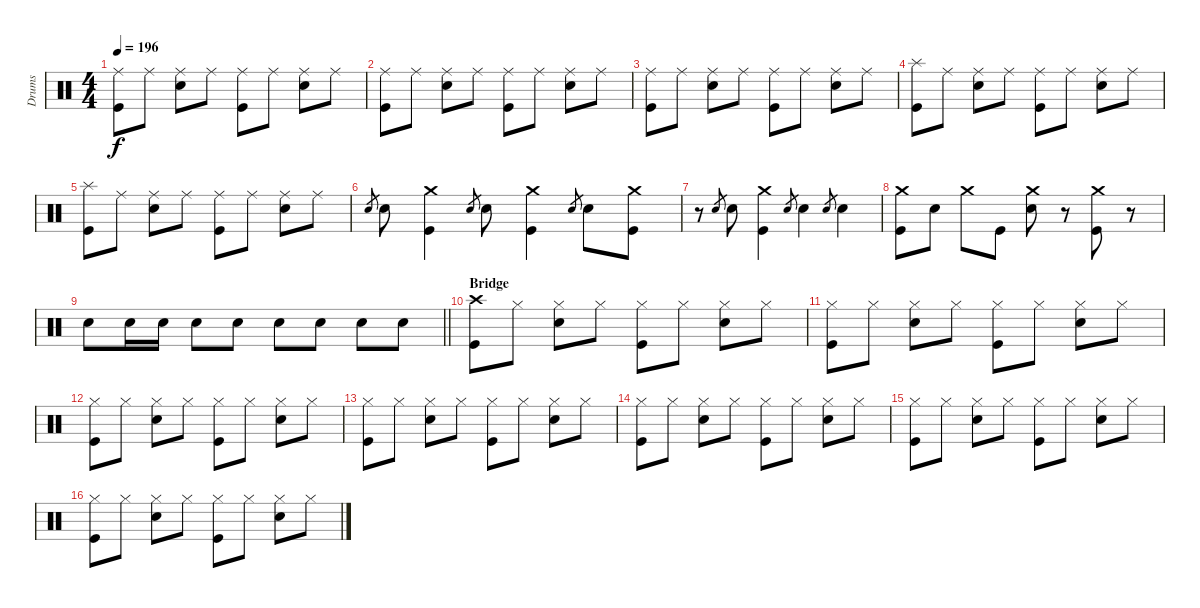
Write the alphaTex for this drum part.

\track ("Drums" "Drums") {instrument percussion}
\staff {score}
\articulation defaults
\ts (4 4)
\tempo 196
\clef neutral
\ks c
("Ride (middle)" "Kick (hit)").8{dy f} "Ride (middle)".8 ("Ride (middle)" "Electric Snare (hit)").8 "Ride (middle)".8 ("Ride (middle)" "Kick (hit)").8 "Ride (middle)".8 ("Ride (middle)" "Electric Snare (hit)").8 "Ride (middle)".8 |
("Ride (middle)" "Kick (hit)").8 "Ride (middle)".8 ("Ride (middle)" "Electric Snare (hit)").8 "Ride (middle)".8 ("Ride (middle)" "Kick (hit)").8 "Ride (middle)".8 ("Ride (middle)" "Electric Snare (hit)").8 "Ride (middle)".8 |
("Ride (middle)" "Kick (hit)").8 "Ride (middle)".8 ("Ride (middle)" "Electric Snare (hit)").8 "Ride (middle)".8 ("Ride (middle)" "Kick (hit)").8 "Ride (middle)".8 ("Ride (middle)" "Electric Snare (hit)").8 "Ride (middle)".8 |
("Splash (hit)" "Kick (hit)").8 "Ride (middle)".8 ("Ride (middle)" "Electric Snare (hit)").8 "Ride (middle)".8 ("Ride (middle)" "Kick (hit)").8 "Ride (middle)".8 ("Ride (middle)" "Electric Snare (hit)").8 "Ride (middle)".8 |
("Splash (hit)" "Kick (hit)").8 "Ride (middle)".8 ("Ride (middle)" "Electric Snare (hit)").8 "Ride (middle)".8 ("Ride (middle)" "Kick (hit)").8 "Ride (middle)".8 ("Ride (middle)" "Electric Snare (hit)").8 "Ride (middle)".8 |
"Electric Snare (hit)".8{gr} "Electric Snare (hit)".8 ("Crash medium (hit)" "Kick (hit)").4 "Electric Snare (hit)".8{gr} "Electric Snare (hit)".8 ("Crash medium (hit)" "Kick (hit)").4 "Electric Snare (hit)".8{gr} "Electric Snare (hit)".8 ("Crash medium (hit)" "Kick (hit)").8 |
r.8 "Electric Snare (hit)".8{gr} "Electric Snare (hit)".8 ("Crash medium (hit)" "Kick (hit)").4 "Electric Snare (hit)".8{gr} "Electric Snare (hit)".4 "Electric Snare (hit)".8{gr} "Electric Snare (hit)".4 |
("Crash medium (hit)" "Kick (hit)").8 "Electric Snare (hit)".8 "Crash medium (hit)".8 "Kick (hit)".8 ("Crash medium (hit)" "Electric Snare (hit)").8 r.8 ("Crash medium (hit)" "Kick (hit)").8 r.8 |
\barLineRight lightlight "Electric Snare (hit)".8 "Electric Snare (hit)".16 "Electric Snare (hit)".16 "Electric Snare (hit)".8 "Electric Snare (hit)".8 "Electric Snare (hit)".8 "Electric Snare (hit)".8 "Electric Snare (hit)".8 "Electric Snare (hit)".8
|
\section ("" "Bridge")
("Crash high (hit)" "Kick (hit)").8 "Hi-Hat (closed)".8 ("Hi-Hat (closed)" "Electric Snare (hit)").8 "Hi-Hat (closed)".8 ("Hi-Hat (closed)" "Kick (hit)").8 "Hi-Hat (closed)".8 ("Hi-Hat (closed)" "Electric Snare (hit)").8 "Hi-Hat (closed)".8 |
("Hi-Hat (closed)" "Kick (hit)").8 "Hi-Hat (closed)".8 ("Hi-Hat (closed)" "Electric Snare (hit)").8 "Hi-Hat (closed)".8 ("Hi-Hat (closed)" "Kick (hit)").8 "Hi-Hat (closed)".8 ("Hi-Hat (closed)" "Electric Snare (hit)").8 "Hi-Hat (closed)".8 |
("Hi-Hat (closed)" "Kick (hit)").8 "Hi-Hat (closed)".8 ("Hi-Hat (closed)" "Electric Snare (hit)").8 "Hi-Hat (closed)".8 ("Hi-Hat (closed)" "Kick (hit)").8 "Hi-Hat (closed)".8 ("Hi-Hat (closed)" "Electric Snare (hit)").8 "Hi-Hat (closed)".8 |
("Hi-Hat (closed)" "Kick (hit)").8 "Hi-Hat (closed)".8 ("Hi-Hat (closed)" "Electric Snare (hit)").8 "Hi-Hat (closed)".8 ("Hi-Hat (closed)" "Kick (hit)").8 "Hi-Hat (closed)".8 ("Hi-Hat (closed)" "Electric Snare (hit)").8 "Hi-Hat (closed)".8 |
("Hi-Hat (closed)" "Kick (hit)").8 "Hi-Hat (closed)".8 ("Hi-Hat (closed)" "Electric Snare (hit)").8 "Hi-Hat (closed)".8 ("Hi-Hat (closed)" "Kick (hit)").8 "Hi-Hat (closed)".8 ("Hi-Hat (closed)" "Electric Snare (hit)").8 "Hi-Hat (closed)".8 |
("Hi-Hat (closed)" "Kick (hit)").8 "Hi-Hat (closed)".8 ("Hi-Hat (closed)" "Electric Snare (hit)").8 "Hi-Hat (closed)".8 ("Hi-Hat (closed)" "Kick (hit)").8 "Hi-Hat (closed)".8 ("Hi-Hat (closed)" "Electric Snare (hit)").8 "Hi-Hat (closed)".8 |
("Hi-Hat (closed)" "Kick (hit)").8 "Hi-Hat (closed)".8 ("Hi-Hat (closed)" "Electric Snare (hit)").8 "Hi-Hat (closed)".8 ("Hi-Hat (closed)" "Kick (hit)").8 "Hi-Hat (closed)".8 ("Hi-Hat (closed)" "Electric Snare (hit)").8 "Hi-Hat (closed)".8
